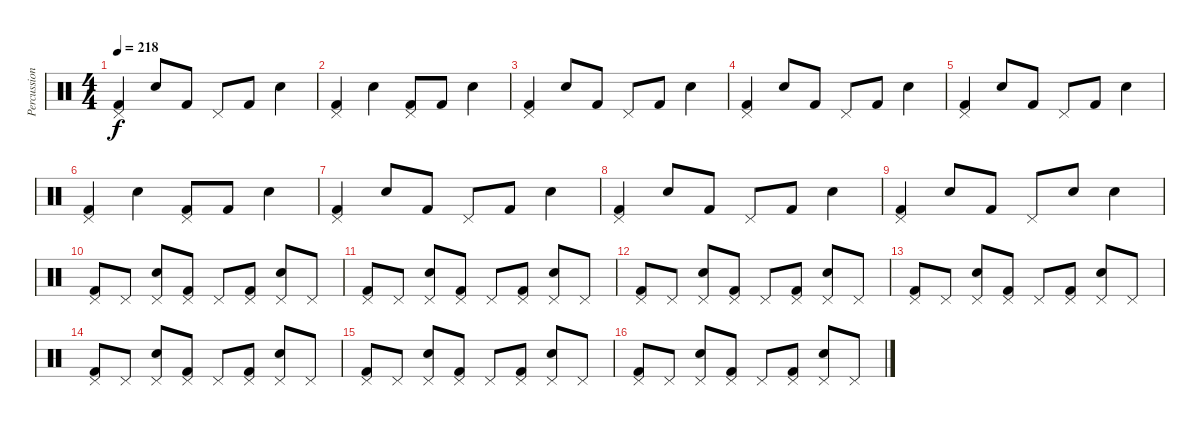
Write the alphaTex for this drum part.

\track ("Percussion" "Percussion") {instrument percussion}
\staff {score}
\articulation defaults
\ts (4 4)
\tempo 218
\clef neutral
\ks c
("Kick (hit) 2" "Pedal Hi-Hat (hit)").4{dy f} "Snare (hit) 2".8 "Kick (hit) 2".8 "Pedal Hi-Hat (hit)".8 "Kick (hit) 2".8 "Snare (hit) 2".4 |
("Kick (hit) 2" "Pedal Hi-Hat (hit)").4 "Snare (hit) 2".4 ("Kick (hit) 2" "Pedal Hi-Hat (hit)").8 "Kick (hit) 2".8 "Snare (hit) 2".4 |
("Kick (hit) 2" "Pedal Hi-Hat (hit)").4 "Snare (hit) 2".8 "Kick (hit) 2".8 "Pedal Hi-Hat (hit)".8 "Kick (hit) 2".8 "Snare (hit) 2".4 |
("Kick (hit) 2" "Pedal Hi-Hat (hit)").4 "Snare (hit) 2".8 "Kick (hit) 2".8 "Pedal Hi-Hat (hit)".8 "Kick (hit) 2".8 "Snare (hit) 2".4 |
("Kick (hit) 2" "Pedal Hi-Hat (hit)").4 "Snare (hit) 2".8 "Kick (hit) 2".8 "Pedal Hi-Hat (hit)".8 "Kick (hit) 2".8 "Snare (hit) 2".4 |
("Kick (hit) 2" "Pedal Hi-Hat (hit)").4 "Snare (hit) 2".4 ("Kick (hit) 2" "Pedal Hi-Hat (hit)").8 "Kick (hit) 2".8 "Snare (hit) 2".4 |
("Kick (hit) 2" "Pedal Hi-Hat (hit)").4 "Snare (hit) 2".8 "Kick (hit) 2".8 "Pedal Hi-Hat (hit)".8 "Kick (hit) 2".8 "Snare (hit) 2".4 |
("Kick (hit) 2" "Pedal Hi-Hat (hit)").4 "Snare (hit) 2".8 "Kick (hit) 2".8 "Pedal Hi-Hat (hit)".8 "Kick (hit) 2".8 "Snare (hit) 2".4 |
("Kick (hit) 2" "Pedal Hi-Hat (hit)").4 "Snare (hit) 2".8 "Kick (hit) 2".8 "Pedal Hi-Hat (hit)".8 "Snare (hit) 2".8 "Snare (hit) 2".4 |
("Kick (hit) 2" "Pedal Hi-Hat (hit)").8 "Pedal Hi-Hat (hit)".8 ("Snare (hit) 2" "Pedal Hi-Hat (hit)").8 ("Kick (hit) 2" "Pedal Hi-Hat (hit)").8 "Pedal Hi-Hat (hit)".8 ("Kick (hit) 2" "Pedal Hi-Hat (hit)").8 ("Snare (hit) 2" "Pedal Hi-Hat (hit)").8 "Pedal Hi-Hat (hit)".8 |
("Kick (hit) 2" "Pedal Hi-Hat (hit)").8 "Pedal Hi-Hat (hit)".8 ("Snare (hit) 2" "Pedal Hi-Hat (hit)").8 ("Kick (hit) 2" "Pedal Hi-Hat (hit)").8 "Pedal Hi-Hat (hit)".8 ("Kick (hit) 2" "Pedal Hi-Hat (hit)").8 ("Snare (hit) 2" "Pedal Hi-Hat (hit)").8 "Pedal Hi-Hat (hit)".8 |
("Kick (hit) 2" "Pedal Hi-Hat (hit)").8 "Pedal Hi-Hat (hit)".8 ("Snare (hit) 2" "Pedal Hi-Hat (hit)").8 ("Kick (hit) 2" "Pedal Hi-Hat (hit)").8 "Pedal Hi-Hat (hit)".8 ("Kick (hit) 2" "Pedal Hi-Hat (hit)").8 ("Snare (hit) 2" "Pedal Hi-Hat (hit)").8 "Pedal Hi-Hat (hit)".8 |
("Kick (hit) 2" "Pedal Hi-Hat (hit)").8 "Pedal Hi-Hat (hit)".8 ("Snare (hit) 2" "Pedal Hi-Hat (hit)").8 ("Kick (hit) 2" "Pedal Hi-Hat (hit)").8 "Pedal Hi-Hat (hit)".8 ("Kick (hit) 2" "Pedal Hi-Hat (hit)").8 ("Snare (hit) 2" "Pedal Hi-Hat (hit)").8 "Pedal Hi-Hat (hit)".8 |
("Kick (hit) 2" "Pedal Hi-Hat (hit)").8 "Pedal Hi-Hat (hit)".8 ("Snare (hit) 2" "Pedal Hi-Hat (hit)").8 ("Kick (hit) 2" "Pedal Hi-Hat (hit)").8 "Pedal Hi-Hat (hit)".8 ("Kick (hit) 2" "Pedal Hi-Hat (hit)").8 ("Snare (hit) 2" "Pedal Hi-Hat (hit)").8 "Pedal Hi-Hat (hit)".8 |
("Kick (hit) 2" "Pedal Hi-Hat (hit)").8 "Pedal Hi-Hat (hit)".8 ("Snare (hit) 2" "Pedal Hi-Hat (hit)").8 ("Kick (hit) 2" "Pedal Hi-Hat (hit)").8 "Pedal Hi-Hat (hit)".8 ("Kick (hit) 2" "Pedal Hi-Hat (hit)").8 ("Snare (hit) 2" "Pedal Hi-Hat (hit)").8 "Pedal Hi-Hat (hit)".8 |
("Kick (hit) 2" "Pedal Hi-Hat (hit)").8 "Pedal Hi-Hat (hit)".8 ("Snare (hit) 2" "Pedal Hi-Hat (hit)").8 ("Kick (hit) 2" "Pedal Hi-Hat (hit)").8 "Pedal Hi-Hat (hit)".8 ("Kick (hit) 2" "Pedal Hi-Hat (hit)").8 ("Snare (hit) 2" "Pedal Hi-Hat (hit)").8 "Pedal Hi-Hat (hit)".8
